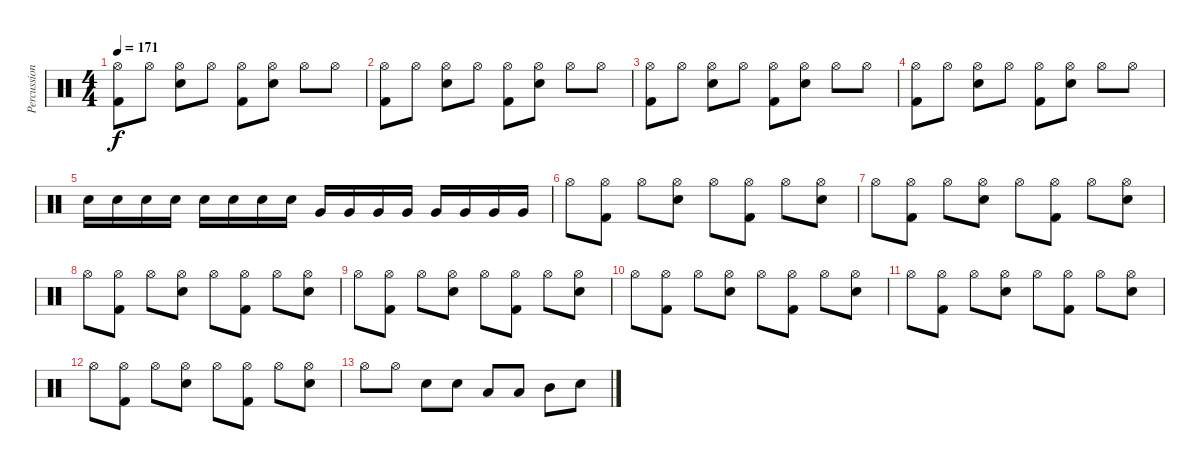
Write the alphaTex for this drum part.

\track ("Percussion" "Percussion") {instrument percussion}
\staff {score}
\articulation defaults
\ts (4 4)
\tempo 171
\clef neutral
\ks c
("Hi-Hat (open)" "Kick (hit) 2").8{dy f} "Hi-Hat (open)".8 ("Hi-Hat (open)" "Snare (hit) 2").8 "Hi-Hat (open)".8 ("Hi-Hat (open)" "Kick (hit) 2").8 ("Hi-Hat (open)" "Snare (hit) 2").8 "Hi-Hat (open)".8 "Hi-Hat (open)".8 |
("Hi-Hat (open)" "Kick (hit) 2").8 "Hi-Hat (open)".8 ("Hi-Hat (open)" "Snare (hit) 2").8 "Hi-Hat (open)".8 ("Hi-Hat (open)" "Kick (hit) 2").8 ("Hi-Hat (open)" "Snare (hit) 2").8 "Hi-Hat (open)".8 "Hi-Hat (open)".8 |
("Hi-Hat (open)" "Kick (hit) 2").8 "Hi-Hat (open)".8 ("Hi-Hat (open)" "Snare (hit) 2").8 "Hi-Hat (open)".8 ("Hi-Hat (open)" "Kick (hit) 2").8 ("Hi-Hat (open)" "Snare (hit) 2").8 "Hi-Hat (open)".8 "Hi-Hat (open)".8 |
("Hi-Hat (open)" "Kick (hit) 2").8 "Hi-Hat (open)".8 ("Hi-Hat (open)" "Snare (hit) 2").8 "Hi-Hat (open)".8 ("Hi-Hat (open)" "Kick (hit) 2").8 ("Hi-Hat (open)" "Snare (hit) 2").8 "Hi-Hat (open)".8 "Hi-Hat (open)".8 |
"Snare (hit) 2".16 "Snare (hit) 2".16 "Snare (hit) 2".16 "Snare (hit) 2".16 "Snare (hit) 2".16 "Snare (hit) 2".16 "Snare (hit) 2".16 "Snare (hit) 2".16 "Very Low Tom (hit)".16 "Very Low Tom (hit)".16 "Very Low Tom (hit)".16 "Very Low Tom (hit)".16 "Very Low Tom (hit)".16 "Very Low Tom (hit)".16 "Very Low Tom (hit)".16 "Very Low Tom (hit)".16 |
"Hi-Hat (open)".8 ("Hi-Hat (open)" "Kick (hit) 2").8 "Hi-Hat (open)".8 ("Hi-Hat (open)" "Snare (hit) 2").8 "Hi-Hat (open)".8 ("Hi-Hat (open)" "Kick (hit) 2").8 "Hi-Hat (open)".8 ("Hi-Hat (open)" "Snare (hit) 2").8 |
"Hi-Hat (open)".8 ("Hi-Hat (open)" "Kick (hit) 2").8 "Hi-Hat (open)".8 ("Hi-Hat (open)" "Snare (hit) 2").8 "Hi-Hat (open)".8 ("Hi-Hat (open)" "Kick (hit) 2").8 "Hi-Hat (open)".8 ("Hi-Hat (open)" "Snare (hit) 2").8 |
"Hi-Hat (open)".8 ("Hi-Hat (open)" "Kick (hit) 2").8 "Hi-Hat (open)".8 ("Hi-Hat (open)" "Snare (hit) 2").8 "Hi-Hat (open)".8 ("Hi-Hat (open)" "Kick (hit) 2").8 "Hi-Hat (open)".8 ("Hi-Hat (open)" "Snare (hit) 2").8 |
"Hi-Hat (open)".8 ("Hi-Hat (open)" "Kick (hit) 2").8 "Hi-Hat (open)".8 ("Hi-Hat (open)" "Snare (hit) 2").8 "Hi-Hat (open)".8 ("Hi-Hat (open)" "Kick (hit) 2").8 "Hi-Hat (open)".8 ("Hi-Hat (open)" "Snare (hit) 2").8 |
"Hi-Hat (open)".8 ("Hi-Hat (open)" "Kick (hit) 2").8 "Hi-Hat (open)".8 ("Hi-Hat (open)" "Snare (hit) 2").8 "Hi-Hat (open)".8 ("Hi-Hat (open)" "Kick (hit) 2").8 "Hi-Hat (open)".8 ("Hi-Hat (open)" "Snare (hit) 2").8 |
"Hi-Hat (open)".8 ("Hi-Hat (open)" "Kick (hit) 2").8 "Hi-Hat (open)".8 ("Hi-Hat (open)" "Snare (hit) 2").8 "Hi-Hat (open)".8 ("Hi-Hat (open)" "Kick (hit) 2").8 "Hi-Hat (open)".8 ("Hi-Hat (open)" "Snare (hit) 2").8 |
"Hi-Hat (open)".8 ("Hi-Hat (open)" "Kick (hit) 2").8 "Hi-Hat (open)".8 ("Hi-Hat (open)" "Snare (hit) 2").8 "Hi-Hat (open)".8 ("Hi-Hat (open)" "Kick (hit) 2").8 "Hi-Hat (open)".8 ("Hi-Hat (open)" "Snare (hit) 2").8 |
"Hi-Hat (open)".8 "Hi-Hat (open)".8 "Snare (hit) 2".8 "Snare (hit) 2".8 "Low Floor Tom (hit)".8 "Low Floor Tom (hit)".8 "Mid Tom (hit)".8 "Snare (hit) 2".8
